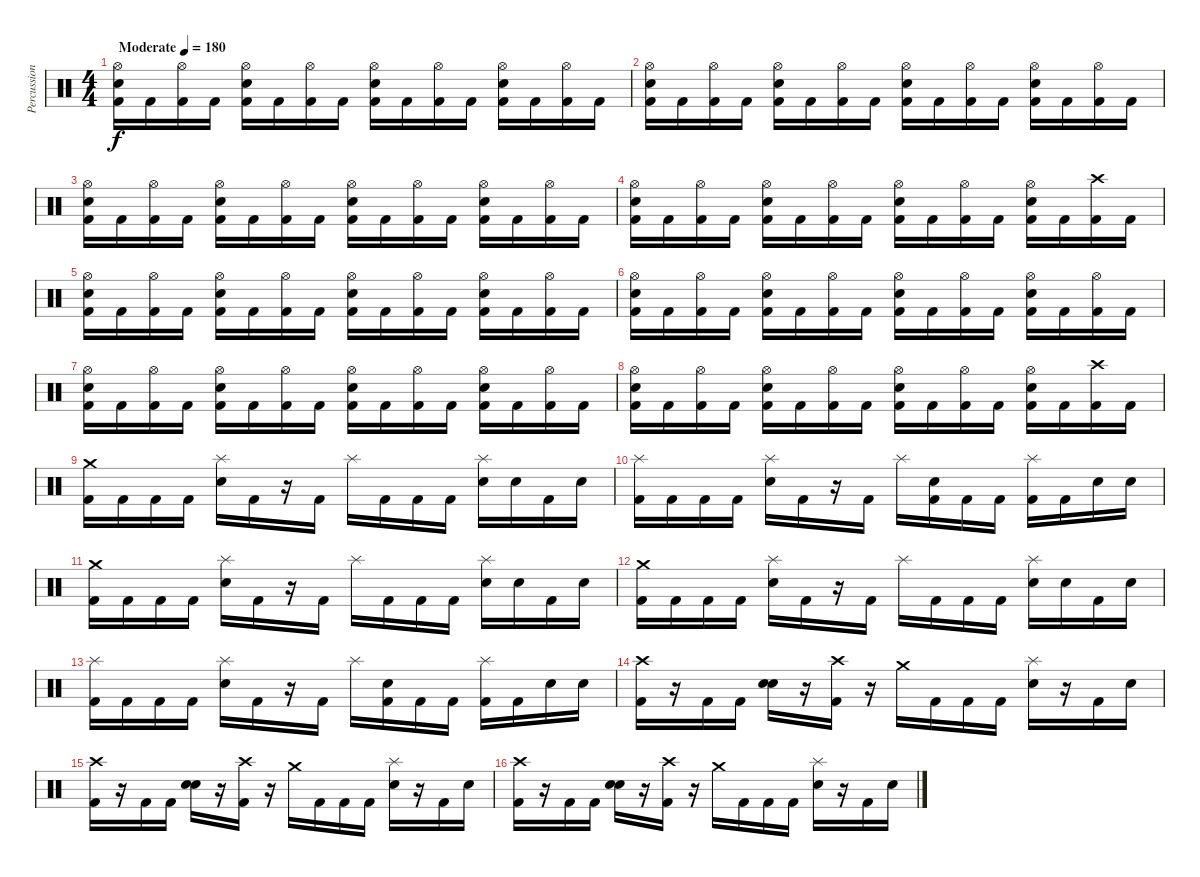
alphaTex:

\track ("Percussion" "Percussion") {instrument percussion}
\staff {score}
\articulation defaults
\ts (4 4)
\tempo (180 "Moderate")
\clef neutral
\ks c
("Hi-Hat (open)" "Electric Snare (hit)" "Kick (hit) 2").16{dy f} "Kick (hit) 2".16 ("Hi-Hat (open)" "Kick (hit) 2").16 "Kick (hit) 2".16 ("Hi-Hat (open)" "Electric Snare (hit)" "Kick (hit) 2").16 "Kick (hit) 2".16 ("Hi-Hat (open)" "Kick (hit) 2").16 "Kick (hit) 2".16 ("Hi-Hat (open)" "Electric Snare (hit)" "Kick (hit) 2").16 "Kick (hit) 2".16 ("Hi-Hat (open)" "Kick (hit) 2").16 "Kick (hit) 2".16 ("Hi-Hat (open)" "Electric Snare (hit)" "Kick (hit) 2").16 "Kick (hit) 2".16 ("Hi-Hat (open)" "Kick (hit) 2").16 "Kick (hit) 2".16 |
("Hi-Hat (open)" "Electric Snare (hit)" "Kick (hit) 2").16 "Kick (hit) 2".16 ("Hi-Hat (open)" "Kick (hit) 2").16 "Kick (hit) 2".16 ("Hi-Hat (open)" "Electric Snare (hit)" "Kick (hit) 2").16 "Kick (hit) 2".16 ("Hi-Hat (open)" "Kick (hit) 2").16 "Kick (hit) 2".16 ("Hi-Hat (open)" "Electric Snare (hit)" "Kick (hit) 2").16 "Kick (hit) 2".16 ("Hi-Hat (open)" "Kick (hit) 2").16 "Kick (hit) 2".16 ("Hi-Hat (open)" "Electric Snare (hit)" "Kick (hit) 2").16 "Kick (hit) 2".16 ("Hi-Hat (open)" "Kick (hit) 2").16 "Kick (hit) 2".16 |
("Hi-Hat (open)" "Electric Snare (hit)" "Kick (hit) 2").16 "Kick (hit) 2".16 ("Hi-Hat (open)" "Kick (hit) 2").16 "Kick (hit) 2".16 ("Hi-Hat (open)" "Electric Snare (hit)" "Kick (hit) 2").16 "Kick (hit) 2".16 ("Hi-Hat (open)" "Kick (hit) 2").16 "Kick (hit) 2".16 ("Hi-Hat (open)" "Electric Snare (hit)" "Kick (hit) 2").16 "Kick (hit) 2".16 ("Hi-Hat (open)" "Kick (hit) 2").16 "Kick (hit) 2".16 ("Hi-Hat (open)" "Electric Snare (hit)" "Kick (hit) 2").16 "Kick (hit) 2".16 ("Hi-Hat (open)" "Kick (hit) 2").16 "Kick (hit) 2".16 |
("Hi-Hat (open)" "Electric Snare (hit)" "Kick (hit) 2").16 "Kick (hit) 2".16 ("Hi-Hat (open)" "Kick (hit) 2").16 "Kick (hit) 2".16 ("Hi-Hat (open)" "Electric Snare (hit)" "Kick (hit) 2").16 "Kick (hit) 2".16 ("Hi-Hat (open)" "Kick (hit) 2").16 "Kick (hit) 2".16 ("Hi-Hat (open)" "Electric Snare (hit)" "Kick (hit) 2").16 "Kick (hit) 2".16 ("Hi-Hat (open)" "Kick (hit) 2").16 "Kick (hit) 2".16 ("Hi-Hat (open)" "Electric Snare (hit)" "Kick (hit) 2").16 "Kick (hit) 2".16 ("Crash high (hit)" "Kick (hit) 2").16 "Kick (hit) 2".16 |
("Hi-Hat (open)" "Electric Snare (hit)" "Kick (hit) 2").16 "Kick (hit) 2".16 ("Hi-Hat (open)" "Kick (hit) 2").16 "Kick (hit) 2".16 ("Hi-Hat (open)" "Electric Snare (hit)" "Kick (hit) 2").16 "Kick (hit) 2".16 ("Hi-Hat (open)" "Kick (hit) 2").16 "Kick (hit) 2".16 ("Hi-Hat (open)" "Electric Snare (hit)" "Kick (hit) 2").16 "Kick (hit) 2".16 ("Hi-Hat (open)" "Kick (hit) 2").16 "Kick (hit) 2".16 ("Hi-Hat (open)" "Electric Snare (hit)" "Kick (hit) 2").16 "Kick (hit) 2".16 ("Hi-Hat (open)" "Kick (hit) 2").16 "Kick (hit) 2".16 |
("Hi-Hat (open)" "Electric Snare (hit)" "Kick (hit) 2").16 "Kick (hit) 2".16 ("Hi-Hat (open)" "Kick (hit) 2").16 "Kick (hit) 2".16 ("Hi-Hat (open)" "Electric Snare (hit)" "Kick (hit) 2").16 "Kick (hit) 2".16 ("Hi-Hat (open)" "Kick (hit) 2").16 "Kick (hit) 2".16 ("Hi-Hat (open)" "Electric Snare (hit)" "Kick (hit) 2").16 "Kick (hit) 2".16 ("Hi-Hat (open)" "Kick (hit) 2").16 "Kick (hit) 2".16 ("Hi-Hat (open)" "Electric Snare (hit)" "Kick (hit) 2").16 "Kick (hit) 2".16 ("Hi-Hat (open)" "Kick (hit) 2").16 "Kick (hit) 2".16 |
("Hi-Hat (open)" "Electric Snare (hit)" "Kick (hit) 2").16 "Kick (hit) 2".16 ("Hi-Hat (open)" "Kick (hit) 2").16 "Kick (hit) 2".16 ("Hi-Hat (open)" "Electric Snare (hit)" "Kick (hit) 2").16 "Kick (hit) 2".16 ("Hi-Hat (open)" "Kick (hit) 2").16 "Kick (hit) 2".16 ("Hi-Hat (open)" "Electric Snare (hit)" "Kick (hit) 2").16 "Kick (hit) 2".16 ("Hi-Hat (open)" "Kick (hit) 2").16 "Kick (hit) 2".16 ("Hi-Hat (open)" "Electric Snare (hit)" "Kick (hit) 2").16 "Kick (hit) 2".16 ("Hi-Hat (open)" "Kick (hit) 2").16 "Kick (hit) 2".16 |
("Hi-Hat (open)" "Electric Snare (hit)" "Kick (hit) 2").16 "Kick (hit) 2".16 ("Hi-Hat (open)" "Kick (hit) 2").16 "Kick (hit) 2".16 ("Hi-Hat (open)" "Electric Snare (hit)" "Kick (hit) 2").16 "Kick (hit) 2".16 ("Hi-Hat (open)" "Kick (hit) 2").16 "Kick (hit) 2".16 ("Hi-Hat (open)" "Electric Snare (hit)" "Kick (hit) 2").16 "Kick (hit) 2".16 ("Hi-Hat (open)" "Kick (hit) 2").16 "Kick (hit) 2".16 ("Hi-Hat (open)" "Electric Snare (hit)" "Kick (hit) 2").16 "Kick (hit) 2".16 ("Crash high (hit)" "Kick (hit) 2").16 "Kick (hit) 2".16 |
("Crash medium (hit)" "Kick (hit) 2").16 "Kick (hit) 2".16 "Kick (hit) 2".16 "Kick (hit) 2".16 ("Splash (hit)" "Electric Snare (hit)").16 "Kick (hit) 2".16 r.16 "Kick (hit) 2".16 "Splash (hit)".16 "Kick (hit) 2".16 "Kick (hit) 2".16 "Kick (hit) 2".16 ("Splash (hit)" "Electric Snare (hit)").16 "Electric Snare (hit)".16 "Kick (hit) 2".16 "Electric Snare (hit)".16 |
("Splash (hit)" "Kick (hit) 2").16 "Kick (hit) 2".16 "Kick (hit) 2".16 "Kick (hit) 2".16 ("Splash (hit)" "Electric Snare (hit)").16 "Kick (hit) 2".16 r.16 "Kick (hit) 2".16 "Splash (hit)".16 ("Electric Snare (hit)" "Kick (hit) 2").16 "Kick (hit) 2".16 "Kick (hit) 2".16 ("Splash (hit)" "Kick (hit) 2").16 "Kick (hit) 2".16 "Electric Snare (hit)".16 "Electric Snare (hit)".16 |
("Crash medium (hit)" "Kick (hit) 2").16 "Kick (hit) 2".16 "Kick (hit) 2".16 "Kick (hit) 2".16 ("Splash (hit)" "Electric Snare (hit)").16 "Kick (hit) 2".16 r.16 "Kick (hit) 2".16 "Splash (hit)".16 "Kick (hit) 2".16 "Kick (hit) 2".16 "Kick (hit) 2".16 ("Splash (hit)" "Electric Snare (hit)").16 "Electric Snare (hit)".16 "Kick (hit) 2".16 "Electric Snare (hit)".16 |
("Crash medium (hit)" "Kick (hit) 2").16 "Kick (hit) 2".16 "Kick (hit) 2".16 "Kick (hit) 2".16 ("Splash (hit)" "Electric Snare (hit)").16 "Kick (hit) 2".16 r.16 "Kick (hit) 2".16 "Splash (hit)".16 "Kick (hit) 2".16 "Kick (hit) 2".16 "Kick (hit) 2".16 ("Splash (hit)" "Electric Snare (hit)").16 "Electric Snare (hit)".16 "Kick (hit) 2".16 "Electric Snare (hit)".16 |
("Splash (hit)" "Kick (hit) 2").16 "Kick (hit) 2".16 "Kick (hit) 2".16 "Kick (hit) 2".16 ("Splash (hit)" "Electric Snare (hit)").16 "Kick (hit) 2".16 r.16 "Kick (hit) 2".16 "Splash (hit)".16 ("Electric Snare (hit)" "Kick (hit) 2").16 "Kick (hit) 2".16 "Kick (hit) 2".16 ("Splash (hit)" "Kick (hit) 2").16 "Kick (hit) 2".16 "Electric Snare (hit)".16 "Electric Snare (hit)".16 |
("Crash high (hit)" "Kick (hit) 2").16 r.16 "Kick (hit) 2".16 "Kick (hit) 2".16 ("Electric Snare (hit)" "Electric Snare (hit)").16 r.16 ("Crash high (hit)" "Kick (hit) 2").16 r.16 "Crash medium (hit)".16 "Kick (hit) 2".16 "Kick (hit) 2".16 "Kick (hit) 2".16 ("Splash (hit)" "Electric Snare (hit)").16 r.16 "Kick (hit) 2".16 "Electric Snare (hit)".16 |
("Crash high (hit)" "Kick (hit) 2").16 r.16 "Kick (hit) 2".16 "Kick (hit) 2".16 ("Electric Snare (hit)" "Electric Snare (hit)").16 r.16 ("Crash high (hit)" "Kick (hit) 2").16 r.16 "Crash medium (hit)".16 "Kick (hit) 2".16 "Kick (hit) 2".16 "Kick (hit) 2".16 ("Splash (hit)" "Electric Snare (hit)").16 r.16 "Kick (hit) 2".16 "Electric Snare (hit)".16 |
("Crash high (hit)" "Kick (hit) 2").16 r.16 "Kick (hit) 2".16 "Kick (hit) 2".16 ("Electric Snare (hit)" "Electric Snare (hit)").16 r.16 ("Crash high (hit)" "Kick (hit) 2").16 r.16 "Crash medium (hit)".16 "Kick (hit) 2".16 "Kick (hit) 2".16 "Kick (hit) 2".16 ("Splash (hit)" "Electric Snare (hit)").16 r.16 "Kick (hit) 2".16 "Electric Snare (hit)".16
